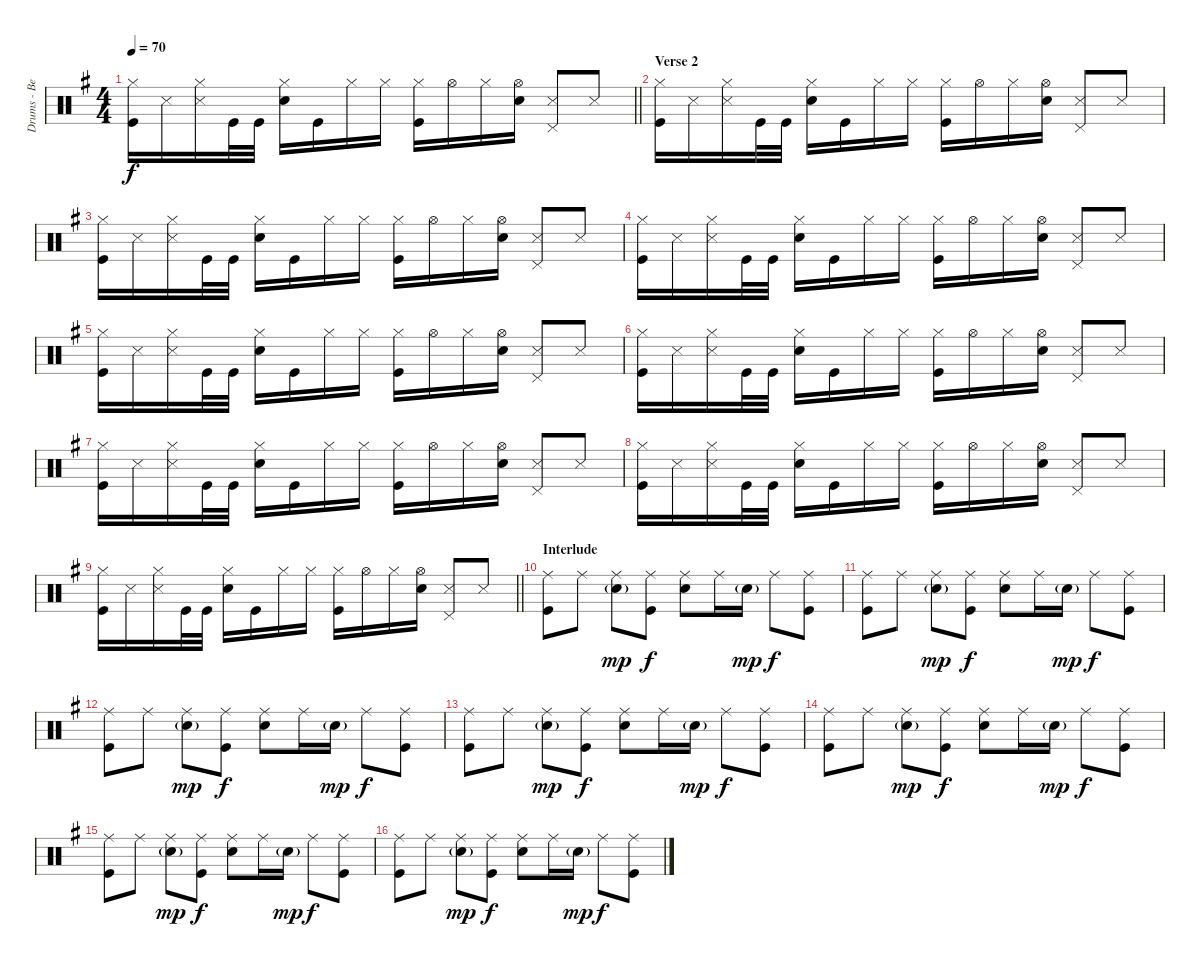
\track ("Drums - Ben Johnston" "Drums - Be") {instrument percussion}
\staff {score}
\articulation defaults
\ts (4 4)
\tempo 70
\clef neutral
\barLineRight lightlight
\ks g
("Hi-Hat (closed)" "Kick (hit)").16{dy f} "Snare (side stick) 3".16 ("Hi-Hat (closed)" "Snare (side stick) 3").16 "Kick (hit)".32 "Kick (hit)".32 ("Hi-Hat (closed)" "Snare (hit) 2").16 "Kick (hit)".16 "Hi-Hat (closed)".16 "Hi-Hat (closed)".16 ("Hi-Hat (closed)" "Kick (hit)").16 "Hi-Hat (open)".16 "Hi-Hat (closed)".16 ("Hi-Hat (open)" "Snare (hit) 2").16 ("Snare (side stick) 3" "Pedal Hi-Hat (hit)").8 "Snare (side stick) 3".8 |
\section ("" "Verse 2")
("Hi-Hat (closed)" "Kick (hit)").16 "Snare (side stick) 3".16 ("Hi-Hat (closed)" "Snare (side stick) 3").16 "Kick (hit)".32 "Kick (hit)".32 ("Hi-Hat (closed)" "Snare (hit) 2").16 "Kick (hit)".16 "Hi-Hat (closed)".16 "Hi-Hat (closed)".16 ("Hi-Hat (closed)" "Kick (hit)").16 "Hi-Hat (open)".16 "Hi-Hat (closed)".16 ("Hi-Hat (open)" "Snare (hit) 2").16 ("Snare (side stick) 3" "Pedal Hi-Hat (hit)").8 "Snare (side stick) 3".8 |
("Hi-Hat (closed)" "Kick (hit)").16 "Snare (side stick) 3".16 ("Hi-Hat (closed)" "Snare (side stick) 3").16 "Kick (hit)".32 "Kick (hit)".32 ("Hi-Hat (closed)" "Snare (hit) 2").16 "Kick (hit)".16 "Hi-Hat (closed)".16 "Hi-Hat (closed)".16 ("Hi-Hat (closed)" "Kick (hit)").16 "Hi-Hat (open)".16 "Hi-Hat (closed)".16 ("Hi-Hat (open)" "Snare (hit) 2").16 ("Snare (side stick) 3" "Pedal Hi-Hat (hit)").8 "Snare (side stick) 3".8 |
("Hi-Hat (closed)" "Kick (hit)").16 "Snare (side stick) 3".16 ("Hi-Hat (closed)" "Snare (side stick) 3").16 "Kick (hit)".32 "Kick (hit)".32 ("Hi-Hat (closed)" "Snare (hit) 2").16 "Kick (hit)".16 "Hi-Hat (closed)".16 "Hi-Hat (closed)".16 ("Hi-Hat (closed)" "Kick (hit)").16 "Hi-Hat (open)".16 "Hi-Hat (closed)".16 ("Hi-Hat (open)" "Snare (hit) 2").16 ("Snare (side stick) 3" "Pedal Hi-Hat (hit)").8 "Snare (side stick) 3".8 |
("Hi-Hat (closed)" "Kick (hit)").16 "Snare (side stick) 3".16 ("Hi-Hat (closed)" "Snare (side stick) 3").16 "Kick (hit)".32 "Kick (hit)".32 ("Hi-Hat (closed)" "Snare (hit) 2").16 "Kick (hit)".16 "Hi-Hat (closed)".16 "Hi-Hat (closed)".16 ("Hi-Hat (closed)" "Kick (hit)").16 "Hi-Hat (open)".16 "Hi-Hat (closed)".16 ("Hi-Hat (open)" "Snare (hit) 2").16 ("Snare (side stick) 3" "Pedal Hi-Hat (hit)").8 "Snare (side stick) 3".8 |
("Hi-Hat (closed)" "Kick (hit)").16 "Snare (side stick) 3".16 ("Hi-Hat (closed)" "Snare (side stick) 3").16 "Kick (hit)".32 "Kick (hit)".32 ("Hi-Hat (closed)" "Snare (hit) 2").16 "Kick (hit)".16 "Hi-Hat (closed)".16 "Hi-Hat (closed)".16 ("Hi-Hat (closed)" "Kick (hit)").16 "Hi-Hat (open)".16 "Hi-Hat (closed)".16 ("Hi-Hat (open)" "Snare (hit) 2").16 ("Snare (side stick) 3" "Pedal Hi-Hat (hit)").8 "Snare (side stick) 3".8 |
("Hi-Hat (closed)" "Kick (hit)").16 "Snare (side stick) 3".16 ("Hi-Hat (closed)" "Snare (side stick) 3").16 "Kick (hit)".32 "Kick (hit)".32 ("Hi-Hat (closed)" "Snare (hit) 2").16 "Kick (hit)".16 "Hi-Hat (closed)".16 "Hi-Hat (closed)".16 ("Hi-Hat (closed)" "Kick (hit)").16 "Hi-Hat (open)".16 "Hi-Hat (closed)".16 ("Hi-Hat (open)" "Snare (hit) 2").16 ("Snare (side stick) 3" "Pedal Hi-Hat (hit)").8 "Snare (side stick) 3".8 |
("Hi-Hat (closed)" "Kick (hit)").16 "Snare (side stick) 3".16 ("Hi-Hat (closed)" "Snare (side stick) 3").16 "Kick (hit)".32 "Kick (hit)".32 ("Hi-Hat (closed)" "Snare (hit) 2").16 "Kick (hit)".16 "Hi-Hat (closed)".16 "Hi-Hat (closed)".16 ("Hi-Hat (closed)" "Kick (hit)").16 "Hi-Hat (open)".16 "Hi-Hat (closed)".16 ("Hi-Hat (open)" "Snare (hit) 2").16 ("Snare (side stick) 3" "Pedal Hi-Hat (hit)").8 "Snare (side stick) 3".8 |
\barLineRight lightlight
("Hi-Hat (closed)" "Kick (hit)").16 "Snare (side stick) 3".16 ("Hi-Hat (closed)" "Snare (side stick) 3").16 "Kick (hit)".32 "Kick (hit)".32 ("Hi-Hat (closed)" "Snare (hit) 2").16 "Kick (hit)".16 "Hi-Hat (closed)".16 "Hi-Hat (closed)".16 ("Hi-Hat (closed)" "Kick (hit)").16 "Hi-Hat (open)".16 "Hi-Hat (closed)".16 ("Hi-Hat (open)" "Snare (hit) 2").16 ("Snare (side stick) 3" "Pedal Hi-Hat (hit)").8 "Snare (side stick) 3".8 |
\section ("" "Interlude")
("Ride (middle)" "Kick (hit)").8{volume 12} "Ride (middle)".8 ("Ride (middle)" "Snare (hit) 2"{g}).8{dy mp} ("Ride (middle)" "Kick (hit)").8{dy f} ("Ride (middle)" "Snare (hit) 2").8 "Ride (middle)".16 "Snare (hit) 2"{g}.16{dy mp} "Ride (middle)".8{dy f} ("Ride (middle)" "Kick (hit)").8 |
("Ride (middle)" "Kick (hit)").8 "Ride (middle)".8 ("Ride (middle)" "Snare (hit) 2"{g}).8{dy mp} ("Ride (middle)" "Kick (hit)").8{dy f} ("Ride (middle)" "Snare (hit) 2").8 "Ride (middle)".16 "Snare (hit) 2"{g}.16{dy mp} "Ride (middle)".8{dy f} ("Ride (middle)" "Kick (hit)").8 |
("Ride (middle)" "Kick (hit)").8 "Ride (middle)".8 ("Ride (middle)" "Snare (hit) 2"{g}).8{dy mp} ("Ride (middle)" "Kick (hit)").8{dy f} ("Ride (middle)" "Snare (hit) 2").8 "Ride (middle)".16 "Snare (hit) 2"{g}.16{dy mp} "Ride (middle)".8{dy f} ("Ride (middle)" "Kick (hit)").8 |
("Ride (middle)" "Kick (hit)").8 "Ride (middle)".8 ("Ride (middle)" "Snare (hit) 2"{g}).8{dy mp} ("Ride (middle)" "Kick (hit)").8{dy f} ("Ride (middle)" "Snare (hit) 2").8 "Ride (middle)".16 "Snare (hit) 2"{g}.16{dy mp} "Ride (middle)".8{dy f} ("Ride (middle)" "Kick (hit)").8 |
("Ride (middle)" "Kick (hit)").8 "Ride (middle)".8 ("Ride (middle)" "Snare (hit) 2"{g}).8{dy mp} ("Ride (middle)" "Kick (hit)").8{dy f} ("Ride (middle)" "Snare (hit) 2").8 "Ride (middle)".16 "Snare (hit) 2"{g}.16{dy mp} "Ride (middle)".8{dy f} ("Ride (middle)" "Kick (hit)").8 |
("Ride (middle)" "Kick (hit)").8 "Ride (middle)".8 ("Ride (middle)" "Snare (hit) 2"{g}).8{dy mp} ("Ride (middle)" "Kick (hit)").8{dy f} ("Ride (middle)" "Snare (hit) 2").8 "Ride (middle)".16 "Snare (hit) 2"{g}.16{dy mp} "Ride (middle)".8{dy f} ("Ride (middle)" "Kick (hit)").8 |
("Ride (middle)" "Kick (hit)").8 "Ride (middle)".8 ("Ride (middle)" "Snare (hit) 2"{g}).8{dy mp} ("Ride (middle)" "Kick (hit)").8{dy f} ("Ride (middle)" "Snare (hit) 2").8 "Ride (middle)".16 "Snare (hit) 2"{g}.16{dy mp} "Ride (middle)".8{dy f} ("Ride (middle)" "Kick (hit)").8
